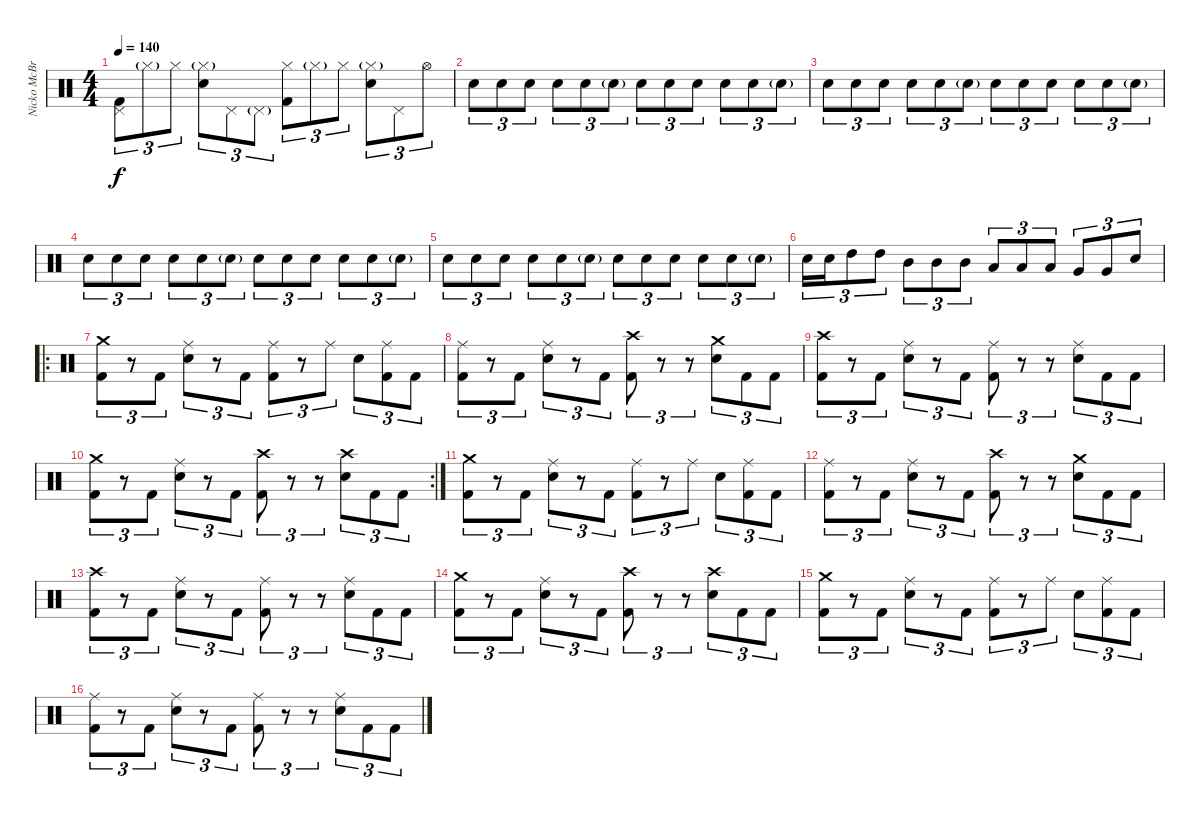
\track ("Nicko McBrain" "Nicko McBr") {instrument percussion}
\staff {score}
\articulation defaults
\ts (4 4)
\tempo 140
\clef neutral
\ks c
("Pedal Hi-Hat (hit)" "Kick (hit) 2").8{tu (3 2) dy f} "Hi-Hat (closed)"{g}.8{tu (3 2)} "Hi-Hat (closed)".8{tu (3 2)} ("Hi-Hat (closed)"{g} "Electric Snare (hit)").8{tu (3 2)} "Pedal Hi-Hat (hit)".8{tu (3 2)} "Pedal Hi-Hat (hit)"{g}.8{tu (3 2)} ("Hi-Hat (closed)" "Kick (hit) 2").8{tu (3 2)} "Hi-Hat (closed)"{g}.8{tu (3 2)} "Hi-Hat (closed)".8{tu (3 2)} ("Hi-Hat (closed)"{g} "Electric Snare (hit)").8{tu (3 2)} "Pedal Hi-Hat (hit)".8{tu (3 2)} "Hi-Hat (open)".8{tu (3 2)} |
"Electric Snare (hit)".8{tu (3 2)} "Electric Snare (hit)".8{tu (3 2)} "Electric Snare (hit)".8{tu (3 2)} "Electric Snare (hit)".8{tu (3 2)} "Electric Snare (hit)".8{tu (3 2)} "Electric Snare (hit)"{g}.8{tu (3 2)} "Electric Snare (hit)".8{tu (3 2)} "Electric Snare (hit)".8{tu (3 2)} "Electric Snare (hit)".8{tu (3 2)} "Electric Snare (hit)".8{tu (3 2)} "Electric Snare (hit)".8{tu (3 2)} "Electric Snare (hit)"{g}.8{tu (3 2)} |
"Electric Snare (hit)".8{tu (3 2)} "Electric Snare (hit)".8{tu (3 2)} "Electric Snare (hit)".8{tu (3 2)} "Electric Snare (hit)".8{tu (3 2)} "Electric Snare (hit)".8{tu (3 2)} "Electric Snare (hit)"{g}.8{tu (3 2)} "Electric Snare (hit)".8{tu (3 2)} "Electric Snare (hit)".8{tu (3 2)} "Electric Snare (hit)".8{tu (3 2)} "Electric Snare (hit)".8{tu (3 2)} "Electric Snare (hit)".8{tu (3 2)} "Electric Snare (hit)"{g}.8{tu (3 2)} |
"Electric Snare (hit)".8{tu (3 2)} "Electric Snare (hit)".8{tu (3 2)} "Electric Snare (hit)".8{tu (3 2)} "Electric Snare (hit)".8{tu (3 2)} "Electric Snare (hit)".8{tu (3 2)} "Electric Snare (hit)"{g}.8{tu (3 2)} "Electric Snare (hit)".8{tu (3 2)} "Electric Snare (hit)".8{tu (3 2)} "Electric Snare (hit)".8{tu (3 2)} "Electric Snare (hit)".8{tu (3 2)} "Electric Snare (hit)".8{tu (3 2)} "Electric Snare (hit)"{g}.8{tu (3 2)} |
"Electric Snare (hit)".8{tu (3 2)} "Electric Snare (hit)".8{tu (3 2)} "Electric Snare (hit)".8{tu (3 2)} "Electric Snare (hit)".8{tu (3 2)} "Electric Snare (hit)".8{tu (3 2)} "Electric Snare (hit)"{g}.8{tu (3 2)} "Electric Snare (hit)".8{tu (3 2)} "Electric Snare (hit)".8{tu (3 2)} "Electric Snare (hit)".8{tu (3 2)} "Electric Snare (hit)".8{tu (3 2)} "Electric Snare (hit)".8{tu (3 2)} "Electric Snare (hit)"{g}.8{tu (3 2)} |
"Electric Snare (hit)".16{tu (3 2)} "Electric Snare (hit)".16{tu (3 2)} "High Tom (hit)".8{tu (3 2)} "High Tom (hit)".8{tu (3 2)} "Mid Tom (hit)".8{tu (3 2)} "Mid Tom (hit)".8{tu (3 2)} "Mid Tom (hit)".8{tu (3 2)} "Low Tom (hit)".8{tu (3 2)} "Low Tom (hit)".8{tu (3 2)} "Low Tom (hit)".8{tu (3 2)} "Very Low Tom (hit)".8{tu (3 2)} "Very Low Tom (hit)".8{tu (3 2)} "Electric Snare (hit)".8{tu (3 2)} |
\ro
("Crash medium (hit)" "Kick (hit) 2").8{tu (3 2)} r.8{tu (3 2)} "Kick (hit) 2".8{tu (3 2)} ("Ride (middle)" "Electric Snare (hit)").8{tu (3 2)} r.8{tu (3 2)} "Kick (hit) 2".8{tu (3 2)} ("Ride (middle)" "Kick (hit) 2").8{tu (3 2)} r.8{tu (3 2)} "Ride (middle)".8{tu (3 2)} "Electric Snare (hit)".8{tu (3 2)} ("Ride (middle)" "Kick (hit) 2").8{tu (3 2)} "Kick (hit) 2".8{tu (3 2)} |
("Ride (middle)" "Kick (hit) 2").8{tu (3 2)} r.8{tu (3 2)} "Kick (hit) 2".8{tu (3 2)} ("Ride (middle)" "Electric Snare (hit)").8{tu (3 2)} r.8{tu (3 2)} "Kick (hit) 2".8{tu (3 2)} ("Crash high (hit)" "Kick (hit) 2").8{tu (3 2)} r.8{tu (3 2)} r.8{tu (3 2)} ("Crash medium (hit)" "Electric Snare (hit)").8{tu (3 2)} "Kick (hit) 2".8{tu (3 2)} "Kick (hit) 2".8{tu (3 2)} |
("Crash high (hit)" "Kick (hit) 2").8{tu (3 2)} r.8{tu (3 2)} "Kick (hit) 2".8{tu (3 2)} ("Ride (middle)" "Electric Snare (hit)").8{tu (3 2)} r.8{tu (3 2)} "Kick (hit) 2".8{tu (3 2)} ("Ride (middle)" "Kick (hit) 2").8{tu (3 2)} r.8{tu (3 2)} r.8{tu (3 2)} ("Ride (middle)" "Electric Snare (hit)").8{tu (3 2)} "Kick (hit) 2".8{tu (3 2)} "Kick (hit) 2".8{tu (3 2)} |
\rc 2
("Crash medium (hit)" "Kick (hit) 2").8{tu (3 2)} r.8{tu (3 2)} "Kick (hit) 2".8{tu (3 2)} ("Ride (middle)" "Electric Snare (hit)").8{tu (3 2)} r.8{tu (3 2)} "Kick (hit) 2".8{tu (3 2)} ("Crash high (hit)" "Kick (hit) 2").8{tu (3 2)} r.8{tu (3 2)} r.8{tu (3 2)} ("Crash high (hit)" "Electric Snare (hit)").8{tu (3 2)} "Kick (hit) 2".8{tu (3 2)} "Kick (hit) 2".8{tu (3 2)} |
("Crash medium (hit)" "Kick (hit) 2").8{tu (3 2)} r.8{tu (3 2)} "Kick (hit) 2".8{tu (3 2)} ("Ride (middle)" "Electric Snare (hit)").8{tu (3 2)} r.8{tu (3 2)} "Kick (hit) 2".8{tu (3 2)} ("Ride (middle)" "Kick (hit) 2").8{tu (3 2)} r.8{tu (3 2)} "Ride (middle)".8{tu (3 2)} "Electric Snare (hit)".8{tu (3 2)} ("Ride (middle)" "Kick (hit) 2").8{tu (3 2)} "Kick (hit) 2".8{tu (3 2)} |
("Ride (middle)" "Kick (hit) 2").8{tu (3 2)} r.8{tu (3 2)} "Kick (hit) 2".8{tu (3 2)} ("Ride (middle)" "Electric Snare (hit)").8{tu (3 2)} r.8{tu (3 2)} "Kick (hit) 2".8{tu (3 2)} ("Crash high (hit)" "Kick (hit) 2").8{tu (3 2)} r.8{tu (3 2)} r.8{tu (3 2)} ("Crash medium (hit)" "Electric Snare (hit)").8{tu (3 2)} "Kick (hit) 2".8{tu (3 2)} "Kick (hit) 2".8{tu (3 2)} |
("Crash high (hit)" "Kick (hit) 2").8{tu (3 2)} r.8{tu (3 2)} "Kick (hit) 2".8{tu (3 2)} ("Ride (middle)" "Electric Snare (hit)").8{tu (3 2)} r.8{tu (3 2)} "Kick (hit) 2".8{tu (3 2)} ("Ride (middle)" "Kick (hit) 2").8{tu (3 2)} r.8{tu (3 2)} r.8{tu (3 2)} ("Ride (middle)" "Electric Snare (hit)").8{tu (3 2)} "Kick (hit) 2".8{tu (3 2)} "Kick (hit) 2".8{tu (3 2)} |
("Crash medium (hit)" "Kick (hit) 2").8{tu (3 2)} r.8{tu (3 2)} "Kick (hit) 2".8{tu (3 2)} ("Ride (middle)" "Electric Snare (hit)").8{tu (3 2)} r.8{tu (3 2)} "Kick (hit) 2".8{tu (3 2)} ("Crash high (hit)" "Kick (hit) 2").8{tu (3 2)} r.8{tu (3 2)} r.8{tu (3 2)} ("Crash high (hit)" "Electric Snare (hit)").8{tu (3 2)} "Kick (hit) 2".8{tu (3 2)} "Kick (hit) 2".8{tu (3 2)} |
("Crash medium (hit)" "Kick (hit) 2").8{tu (3 2)} r.8{tu (3 2)} "Kick (hit) 2".8{tu (3 2)} ("Ride (middle)" "Electric Snare (hit)").8{tu (3 2)} r.8{tu (3 2)} "Kick (hit) 2".8{tu (3 2)} ("Ride (middle)" "Kick (hit) 2").8{tu (3 2)} r.8{tu (3 2)} "Ride (middle)".8{tu (3 2)} "Electric Snare (hit)".8{tu (3 2)} ("Ride (middle)" "Kick (hit) 2").8{tu (3 2)} "Kick (hit) 2".8{tu (3 2)} |
("Ride (middle)" "Kick (hit) 2").8{tu (3 2)} r.8{tu (3 2)} "Kick (hit) 2".8{tu (3 2)} ("Ride (middle)" "Electric Snare (hit)").8{tu (3 2)} r.8{tu (3 2)} "Kick (hit) 2".8{tu (3 2)} ("Ride (middle)" "Kick (hit) 2").8{tu (3 2)} r.8{tu (3 2)} r.8{tu (3 2)} ("Ride (middle)" "Electric Snare (hit)").8{tu (3 2)} "Kick (hit) 2".8{tu (3 2)} "Kick (hit) 2".8{tu (3 2)}
